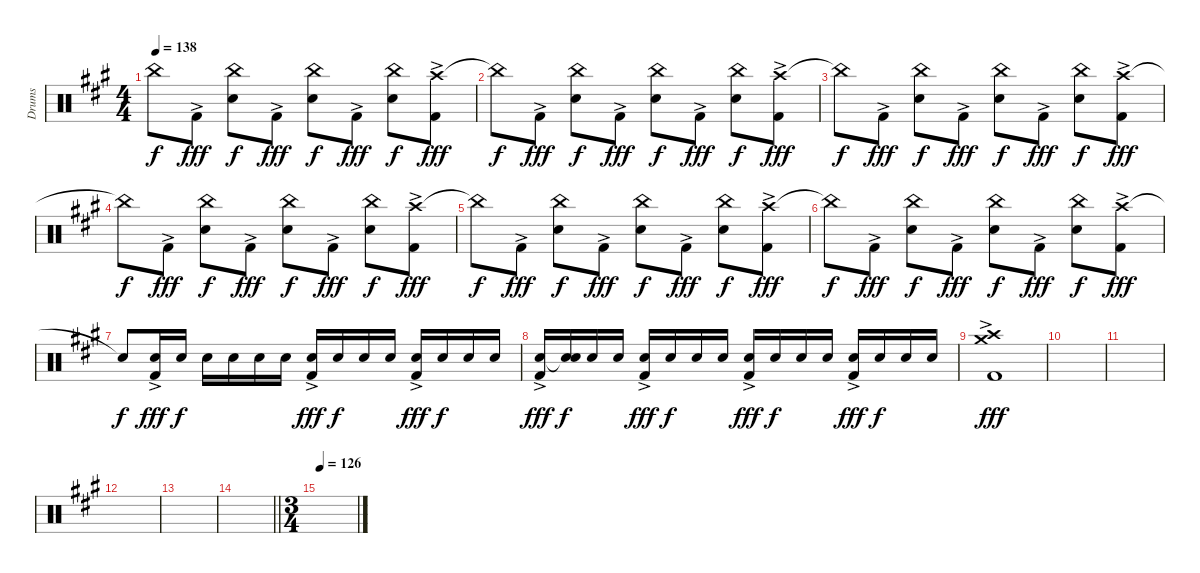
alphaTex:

\track ("Drums" "Drums") {instrument percussion}
\staff {score}
\articulation defaults
\ts (4 4)
\tempo 138
\clef neutral
\ks f#minor "China (hit)"{t}.8{dy f} "Kick (hit) 2"{ac}.8{dy fff}
("China (hit)" "Snare (hit) 2").8{dy f} "Kick (hit) 2"{ac}.8{dy fff} ("China (hit)" "Snare (hit) 2").8{dy f} "Kick (hit) 2"{ac}.8{dy fff} ("China (hit)" "Snare (hit) 2").8{dy f} ("Crash high (hit)" "Kick (hit) 2"{ac}).8{dy fff} |
"China (hit)"{t}.8{dy f} "Kick (hit) 2"{ac}.8{dy fff} ("China (hit)" "Snare (hit) 2").8{dy f} "Kick (hit) 2"{ac}.8{dy fff} ("China (hit)" "Snare (hit) 2").8{dy f} "Kick (hit) 2"{ac}.8{dy fff} ("China (hit)" "Snare (hit) 2").8{dy f} ("Crash high (hit)" "Kick (hit) 2"{ac}).8{dy fff} |
"China (hit)"{t}.8{dy f} "Kick (hit) 2"{ac}.8{dy fff} ("China (hit)" "Snare (hit) 2").8{dy f} "Kick (hit) 2"{ac}.8{dy fff} ("China (hit)" "Snare (hit) 2").8{dy f} "Kick (hit) 2"{ac}.8{dy fff} ("China (hit)" "Snare (hit) 2").8{dy f} ("Crash high (hit)" "Kick (hit) 2"{ac}).8{dy fff} |
"China (hit)"{t}.8{dy f} "Kick (hit) 2"{ac}.8{dy fff} ("China (hit)" "Snare (hit) 2").8{dy f} "Kick (hit) 2"{ac}.8{dy fff} ("China (hit)" "Snare (hit) 2").8{dy f} "Kick (hit) 2"{ac}.8{dy fff} ("China (hit)" "Snare (hit) 2").8{dy f} ("Crash high (hit)" "Kick (hit) 2"{ac}).8{dy fff} |
"China (hit)"{t}.8{dy f} "Kick (hit) 2"{ac}.8{dy fff} ("China (hit)" "Snare (hit) 2").8{dy f} "Kick (hit) 2"{ac}.8{dy fff} ("China (hit)" "Snare (hit) 2").8{dy f} "Kick (hit) 2"{ac}.8{dy fff} ("China (hit)" "Snare (hit) 2").8{dy f} ("Crash high (hit)" "Kick (hit) 2"{ac}).8{dy fff} |
"China (hit)"{t}.8{dy f} "Kick (hit) 2"{ac}.8{dy fff} ("China (hit)" "Snare (hit) 2").8{dy f} "Kick (hit) 2"{ac}.8{dy fff} ("China (hit)" "Snare (hit) 2").8{dy f} "Kick (hit) 2"{ac}.8{dy fff} ("China (hit)" "Snare (hit) 2").8{dy f} ("Crash high (hit)" "Kick (hit) 2"{ac}).8{dy fff} |
"Snare (hit)"{t}.8{dy f} ("Snare (hit) 2" "Kick (hit) 2"{ac}).16{dy fff} "Snare (hit) 2".16{dy f} "Snare (hit) 2".16 "Snare (hit) 2".16 "Snare (hit) 2".16 "Snare (hit) 2".16 ("Snare (hit) 2" "Kick (hit) 2"{ac}).16{dy fff} "Snare (hit) 2".16{dy f} "Snare (hit) 2".16 "Snare (hit) 2".16 ("Snare (hit) 2" "Kick (hit) 2"{ac}).16{dy fff} "Snare (hit) 2".16{dy f} "Snare (hit) 2".16 "Snare (hit) 2".16 |
("Snare (hit) 2" "Kick (hit) 2"{ac}).16{dy fff} ("Snare (hit)"{t} "Snare (hit) 2").16{dy f} "Snare (hit) 2".16 "Snare (hit) 2".16 ("Snare (hit) 2" "Kick (hit) 2"{ac}).16{dy fff} "Snare (hit) 2".16{dy f} "Snare (hit) 2".16 "Snare (hit) 2".16 ("Snare (hit) 2" "Kick (hit) 2"{ac}).16{dy fff} "Snare (hit) 2".16{dy f} "Snare (hit) 2".16 "Snare (hit) 2".16 ("Snare (hit) 2" "Kick (hit) 2"{ac}).16{dy fff} "Snare (hit) 2".16{dy f} "Snare (hit) 2".16 "Snare (hit) 2".16 |
("Crash high (hit)" "Crash medium (hit)" "Kick (hit) 2"{ac}).1{dy fff} |
|
|
|
|
\barLineRight lightlight
|
\ts (3 4)
\tempo 126
